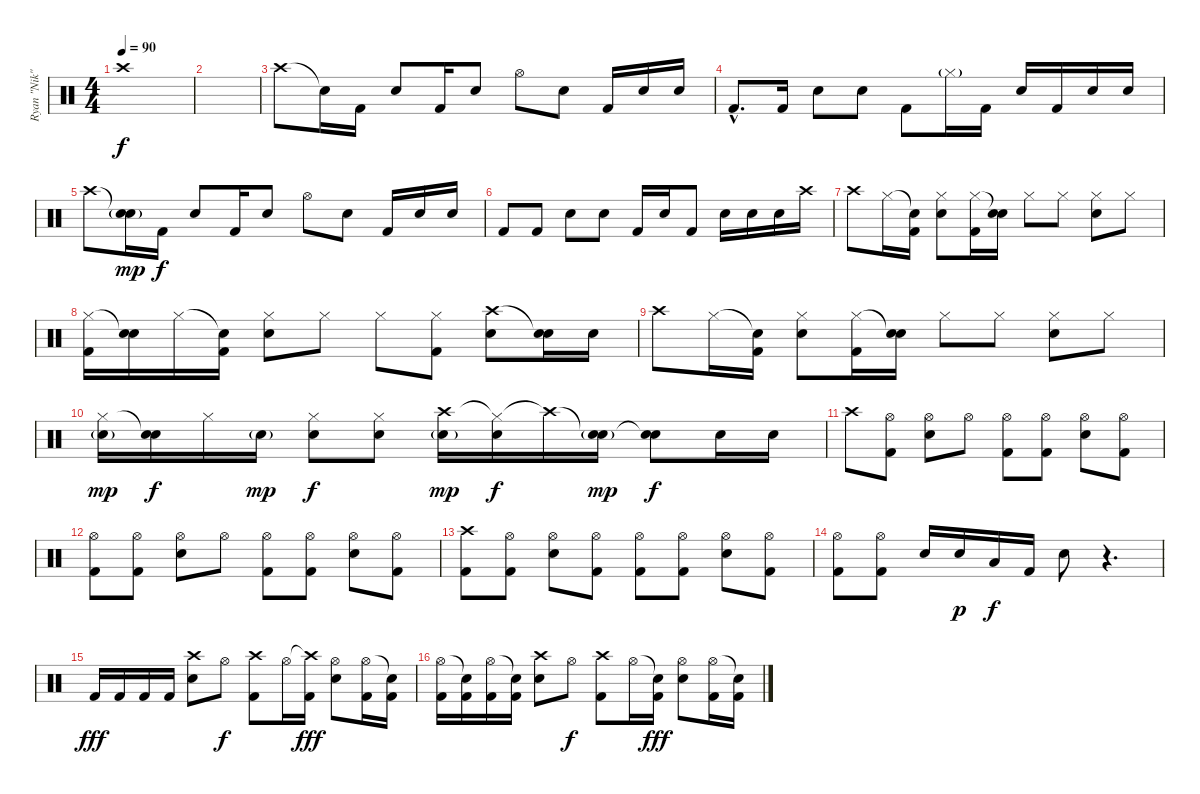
\track ("Ryan \"Nik\" Vikedal (drums)" "Ryan \"Nik\"") {instrument percussion}
\staff {score}
\articulation defaults
\ts (4 4)
\tempo 90
\clef neutral
\ks c "Crash high (hit)".1{dy f}
|
|
"Crash high (hit)".8 "Snare (hit)"{t}.16 "Kick (hit) 2".16 "Electric Snare (hit)".8 "Kick (hit) 2".16 "Electric Snare (hit)".8 "Hi-Hat (open)".8 "Electric Snare (hit)".8 "Kick (hit) 2".16 "Electric Snare (hit)".16 "Electric Snare (hit)".16 |
"Kick (hit) 2"{hac}.8{d} "Kick (hit) 2".16 "Electric Snare (hit)".8 "Electric Snare (hit)".8 "Kick (hit) 2".8 "Hi-Hat (closed)"{g}.16 "Kick (hit) 2".16 "Electric Snare (hit)".16 "Kick (hit) 2".16 "Electric Snare (hit)".16 "Electric Snare (hit)".16 |
"Crash high (hit)".8 ("Snare (hit)"{t} "Electric Snare (hit)"{g}).16{dy mp} "Kick (hit) 2".16{dy f} "Electric Snare (hit)".8 "Kick (hit) 2".16 "Electric Snare (hit)".8 "Hi-Hat (open)".8 "Electric Snare (hit)".8 "Kick (hit) 2".16 "Electric Snare (hit)".16 "Electric Snare (hit)".16 |
"Kick (hit) 2".8 "Kick (hit) 2".8 "Electric Snare (hit)".8 "Electric Snare (hit)".8 "Kick (hit) 2".16 "Electric Snare (hit)".16 "Kick (hit) 2".8 "Electric Snare (hit)".16 "Electric Snare (hit)".16 "Electric Snare (hit)".16 "Crash high (hit)".16 |
"Crash high (hit)".8 "Hi-Hat (closed)".16 ("Snare (hit)"{t} "Kick (hit) 2").16 ("Hi-Hat (closed)" "Electric Snare (hit)").8 ("Hi-Hat (closed)" "Kick (hit) 2").16 ("Snare (hit)"{t} "Electric Snare (hit)").16 "Hi-Hat (closed)".8 "Hi-Hat (closed)".8 ("Hi-Hat (closed)" "Electric Snare (hit)").8 "Hi-Hat (closed)".8 |
("Hi-Hat (closed)" "Kick (hit) 2").16 ("Snare (hit)"{t} "Electric Snare (hit)").16 "Hi-Hat (closed)".16 ("Snare (hit)"{t} "Kick (hit) 2").16 ("Hi-Hat (closed)" "Electric Snare (hit)").8 "Hi-Hat (closed)".8 "Hi-Hat (closed)".8 ("Hi-Hat (closed)" "Kick (hit) 2").8 ("Crash high (hit)" "Electric Snare (hit)").8 ("Snare (hit)"{t} "Electric Snare (hit)").16 "Electric Snare (hit)".16 |
"Crash high (hit)".8 "Hi-Hat (closed)".16 ("Snare (hit)"{t} "Kick (hit) 2").16 ("Hi-Hat (closed)" "Electric Snare (hit)").8 ("Hi-Hat (closed)" "Kick (hit) 2").16 ("Snare (hit)"{t} "Electric Snare (hit)").16 "Hi-Hat (closed)".8 "Hi-Hat (closed)".8 ("Hi-Hat (closed)" "Electric Snare (hit)").8 "Hi-Hat (closed)".8 |
("Hi-Hat (closed)" "Electric Snare (hit)"{g}).16{dy mp} ("Snare (hit)"{t} "Electric Snare (hit)").16{dy f} "Hi-Hat (closed)".16 "Electric Snare (hit)"{g}.16{dy mp} ("Hi-Hat (closed)" "Electric Snare (hit)").8{dy f} ("Hi-Hat (closed)" "Electric Snare (hit)").8 ("Crash high (hit)" "Electric Snare (hit)"{g}).16{dy mp} ("Hi-Hat (closed)"{t} "Electric Snare (hit)").16{dy f} "Crash high (hit)"{t}.16 ("Snare (hit)"{t} "Electric Snare (hit)"{g}).16{dy mp} ("Snare (hit)"{t} "Electric Snare (hit)").8{dy f} "Electric Snare (hit)".16 "Electric Snare (hit)".16 |
"Crash high (hit)".8 ("Hi-Hat (open)" "Kick (hit) 2").8 ("Hi-Hat (open)" "Electric Snare (hit)").8 "Hi-Hat (open)".8 ("Hi-Hat (open)" "Kick (hit) 2").8 ("Hi-Hat (open)" "Kick (hit) 2").8 ("Hi-Hat (open)" "Electric Snare (hit)").8 ("Hi-Hat (open)" "Kick (hit) 2").8 |
("Hi-Hat (open)" "Kick (hit) 2").8 ("Hi-Hat (open)" "Kick (hit) 2").8 ("Hi-Hat (open)" "Electric Snare (hit)").8 "Hi-Hat (open)".8 ("Hi-Hat (open)" "Kick (hit) 2").8 ("Hi-Hat (open)" "Kick (hit) 2").8 ("Hi-Hat (open)" "Electric Snare (hit)").8 ("Hi-Hat (open)" "Kick (hit) 2").8 |
("Crash high (hit)" "Kick (hit) 2").8 ("Hi-Hat (open)" "Kick (hit) 2").8 ("Hi-Hat (open)" "Electric Snare (hit)").8 ("Hi-Hat (open)" "Kick (hit) 2").8 ("Hi-Hat (open)" "Kick (hit) 2").8 ("Hi-Hat (open)" "Kick (hit) 2").8 ("Hi-Hat (open)" "Electric Snare (hit)").8 ("Hi-Hat (open)" "Kick (hit) 2").8 |
("Hi-Hat (open)" "Kick (hit) 2").8 ("Hi-Hat (open)" "Kick (hit) 2").8 "Electric Snare (hit)".16 "Electric Snare (hit)".16{dy p} "Low Tom (hit)".16{dy f} "Kick (hit) 2".16 "Electric Snare (hit)".8 r.4{d} |
"Kick (hit) 2".16{dy fff} "Kick (hit) 2".16 "Kick (hit) 2".16 "Kick (hit) 2".16 ("Crash high (hit)" "Electric Snare (hit)").8 "Hi-Hat (open)".8{dy f} ("Crash high (hit)" "Kick (hit) 2").8 "Hi-Hat (open)".16 ("Crash high (hit)"{t} "Kick (hit) 2").16{dy fff} ("Hi-Hat (open)" "Electric Snare (hit)").8 ("Hi-Hat (open)" "Kick (hit) 2").16 ("Snare (hit)"{t} "Kick (hit) 2").16 |
("Hi-Hat (open)" "Kick (hit) 2").16 ("Snare (hit)"{t} "Kick (hit) 2").16 ("Hi-Hat (open)" "Kick (hit) 2").16 ("Snare (hit)"{t} "Kick (hit) 2").16 ("Crash high (hit)" "Electric Snare (hit)").8 "Hi-Hat (open)".8{dy f} ("Crash high (hit)" "Kick (hit) 2").8 "Hi-Hat (open)".16 ("Snare (hit)"{t} "Kick (hit) 2").16{dy fff} ("Hi-Hat (open)" "Electric Snare (hit)").8 ("Hi-Hat (open)" "Kick (hit) 2").16 ("Snare (hit)"{t} "Kick (hit) 2").16
